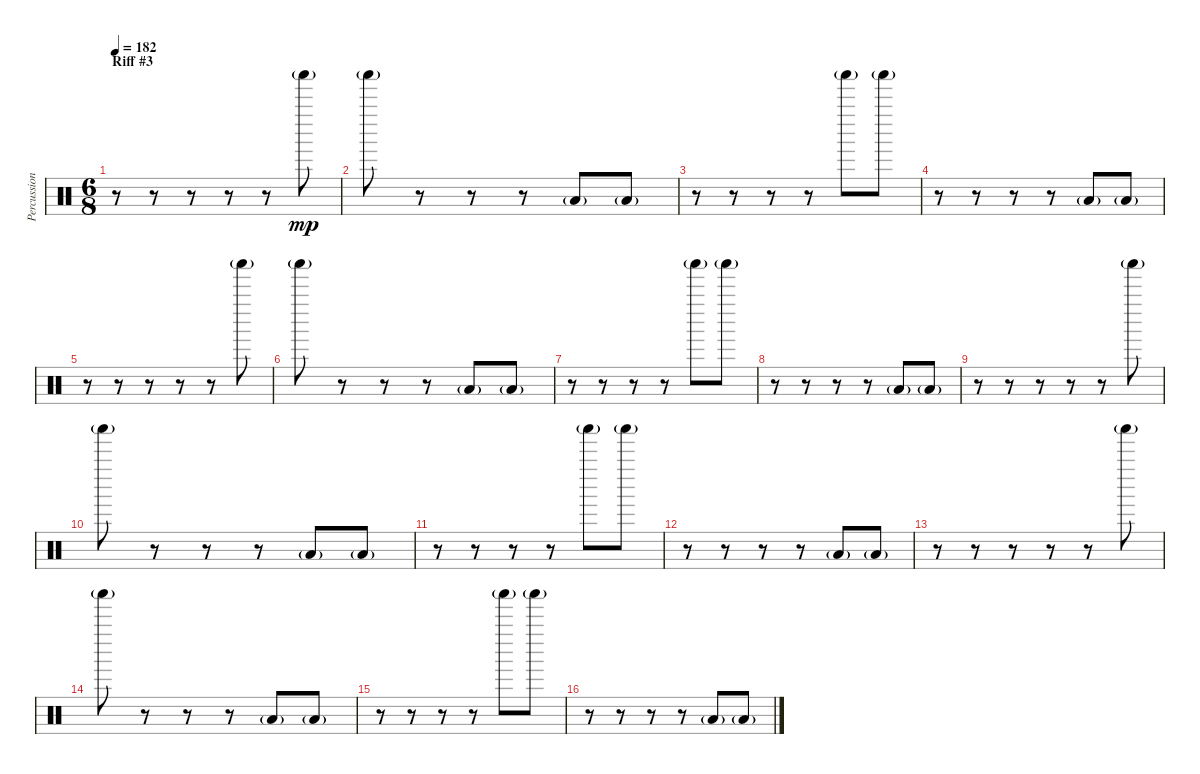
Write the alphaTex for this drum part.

\track ("Percussion" "Percussion") {instrument percussion}
\staff {score}
\articulation defaults
\ts (6 8)
\section ("" "Riff #3")
\tempo 182
\clef neutral
\ks c
r.8{dy f} r.8 r.8 r.8 r.8 "Shaker (hit)"{g}.8{dy mp balance 0} |
"Shaker (hit)"{g}.8{balance 0} r.8 r.8 r.8 "Low Floor Tom (hit)"{g}.8{balance 0} "Low Floor Tom (hit)"{g}.8{balance 0} |
r.8 r.8 r.8 r.8 "Shaker (hit)"{g}.8{balance 0} "Shaker (hit)"{g}.8{balance 0} |
r.8 r.8 r.8 r.8 "Low Floor Tom (hit)"{g}.8{balance 0} "Low Floor Tom (hit)"{g}.8{balance 0} |
r.8 r.8 r.8 r.8 r.8 "Shaker (hit)"{g}.8{balance 0} |
"Shaker (hit)"{g}.8{balance 0} r.8 r.8 r.8 "Low Floor Tom (hit)"{g}.8{balance 0} "Low Floor Tom (hit)"{g}.8{balance 0} |
r.8 r.8 r.8 r.8 "Shaker (hit)"{g}.8{balance 0} "Shaker (hit)"{g}.8{balance 0} |
r.8 r.8 r.8 r.8 "Low Floor Tom (hit)"{g}.8{balance 0} "Low Floor Tom (hit)"{g}.8{balance 0} |
r.8 r.8 r.8 r.8 r.8 "Shaker (hit)"{g}.8{balance 0} |
"Shaker (hit)"{g}.8{balance 0} r.8 r.8 r.8 "Low Floor Tom (hit)"{g}.8{balance 0} "Low Floor Tom (hit)"{g}.8{balance 0} |
r.8 r.8 r.8 r.8 "Shaker (hit)"{g}.8{balance 0} "Shaker (hit)"{g}.8{balance 0} |
r.8 r.8 r.8 r.8 "Low Floor Tom (hit)"{g}.8{balance 0} "Low Floor Tom (hit)"{g}.8{balance 0} |
r.8 r.8 r.8 r.8 r.8 "Shaker (hit)"{g}.8{balance 0} |
"Shaker (hit)"{g}.8{balance 0} r.8 r.8 r.8 "Low Floor Tom (hit)"{g}.8{balance 0} "Low Floor Tom (hit)"{g}.8{balance 0} |
r.8 r.8 r.8 r.8 "Shaker (hit)"{g}.8{balance 0} "Shaker (hit)"{g}.8{balance 0} |
r.8 r.8 r.8 r.8 "Low Floor Tom (hit)"{g}.8{balance 0} "Low Floor Tom (hit)"{g}.8{balance 0}
